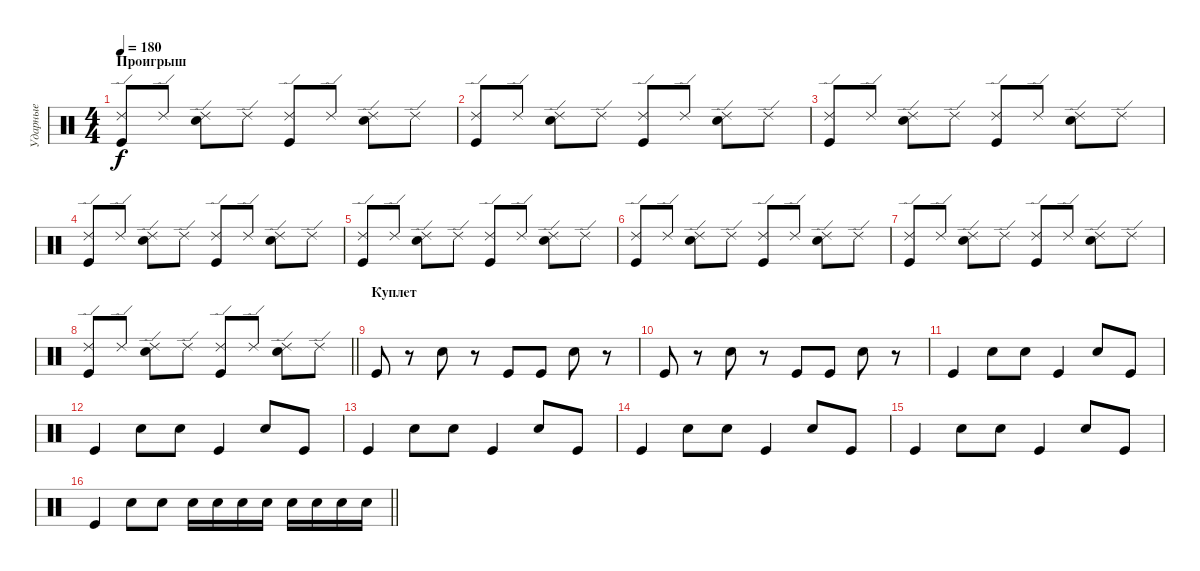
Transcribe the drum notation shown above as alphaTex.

\track ("Ударные" "Ударные") {instrument percussion}
\staff {score}
\articulation defaults
\ts (4 4)
\section ("" "Проигрыш")
\tempo 180
\clef neutral
\ks c
("Kick (hit)" "Ride (edge) 2").8{dy f} "Ride (edge) 2".8 ("Electric Snare (hit)" "Ride (edge) 2").8 "Ride (edge) 2".8 ("Kick (hit)" "Ride (edge) 2").8 "Ride (edge) 2".8 ("Electric Snare (hit)" "Ride (edge) 2").8 "Ride (edge) 2".8 |
("Kick (hit)" "Ride (edge) 2").8 "Ride (edge) 2".8 ("Electric Snare (hit)" "Ride (edge) 2").8 "Ride (edge) 2".8 ("Kick (hit)" "Ride (edge) 2").8 "Ride (edge) 2".8 ("Electric Snare (hit)" "Ride (edge) 2").8 "Ride (edge) 2".8 |
("Kick (hit)" "Ride (edge) 2").8 "Ride (edge) 2".8 ("Electric Snare (hit)" "Ride (edge) 2").8 "Ride (edge) 2".8 ("Kick (hit)" "Ride (edge) 2").8 "Ride (edge) 2".8 ("Electric Snare (hit)" "Ride (edge) 2").8 "Ride (edge) 2".8 |
("Kick (hit)" "Ride (edge) 2").8 "Ride (edge) 2".8 ("Electric Snare (hit)" "Ride (edge) 2").8 "Ride (edge) 2".8 ("Kick (hit)" "Ride (edge) 2").8 "Ride (edge) 2".8 ("Electric Snare (hit)" "Ride (edge) 2").8 "Ride (edge) 2".8 |
("Kick (hit)" "Ride (edge) 2").8 "Ride (edge) 2".8 ("Electric Snare (hit)" "Ride (edge) 2").8 "Ride (edge) 2".8 ("Kick (hit)" "Ride (edge) 2").8 "Ride (edge) 2".8 ("Electric Snare (hit)" "Ride (edge) 2").8 "Ride (edge) 2".8 |
("Kick (hit)" "Ride (edge) 2").8 "Ride (edge) 2".8 ("Electric Snare (hit)" "Ride (edge) 2").8 "Ride (edge) 2".8 ("Kick (hit)" "Ride (edge) 2").8 "Ride (edge) 2".8 ("Electric Snare (hit)" "Ride (edge) 2").8 "Ride (edge) 2".8 |
("Kick (hit)" "Ride (edge) 2").8 "Ride (edge) 2".8 ("Electric Snare (hit)" "Ride (edge) 2").8 "Ride (edge) 2".8 ("Kick (hit)" "Ride (edge) 2").8 "Ride (edge) 2".8 ("Electric Snare (hit)" "Ride (edge) 2").8 "Ride (edge) 2".8 |
\barLineRight lightlight
("Kick (hit)" "Ride (edge) 2").8 "Ride (edge) 2".8 ("Electric Snare (hit)" "Ride (edge) 2").8 "Ride (edge) 2".8 ("Kick (hit)" "Ride (edge) 2").8 "Ride (edge) 2".8 ("Electric Snare (hit)" "Ride (edge) 2").8 "Ride (edge) 2".8 |
\section ("" "Куплет")
"Kick (hit)".8 r.8 "Electric Snare (hit)".8 r.8 "Kick (hit)".8 "Kick (hit)".8 "Electric Snare (hit)".8 r.8 |
"Kick (hit)".8 r.8 "Electric Snare (hit)".8 r.8 "Kick (hit)".8 "Kick (hit)".8 "Electric Snare (hit)".8 r.8 |
"Kick (hit)".4 "Electric Snare (hit)".8 "Electric Snare (hit)".8 "Kick (hit)".4 "Electric Snare (hit)".8 "Kick (hit)".8 |
"Kick (hit)".4 "Electric Snare (hit)".8 "Electric Snare (hit)".8 "Kick (hit)".4 "Electric Snare (hit)".8 "Kick (hit)".8 |
"Kick (hit)".4 "Electric Snare (hit)".8 "Electric Snare (hit)".8 "Kick (hit)".4 "Electric Snare (hit)".8 "Kick (hit)".8 |
"Kick (hit)".4 "Electric Snare (hit)".8 "Electric Snare (hit)".8 "Kick (hit)".4 "Electric Snare (hit)".8 "Kick (hit)".8 |
"Kick (hit)".4 "Electric Snare (hit)".8 "Electric Snare (hit)".8 "Kick (hit)".4 "Electric Snare (hit)".8 "Kick (hit)".8 |
\barLineRight lightlight "Kick (hit)".4 "Electric Snare (hit)".8 "Electric Snare (hit)".8 "Electric Snare (hit)".16 "Electric Snare (hit)".16 "Electric Snare (hit)".16 "Electric Snare (hit)".16 "Electric Snare (hit)".16 "Electric Snare (hit)".16 "Electric Snare (hit)".16 "Electric Snare (hit)".16
